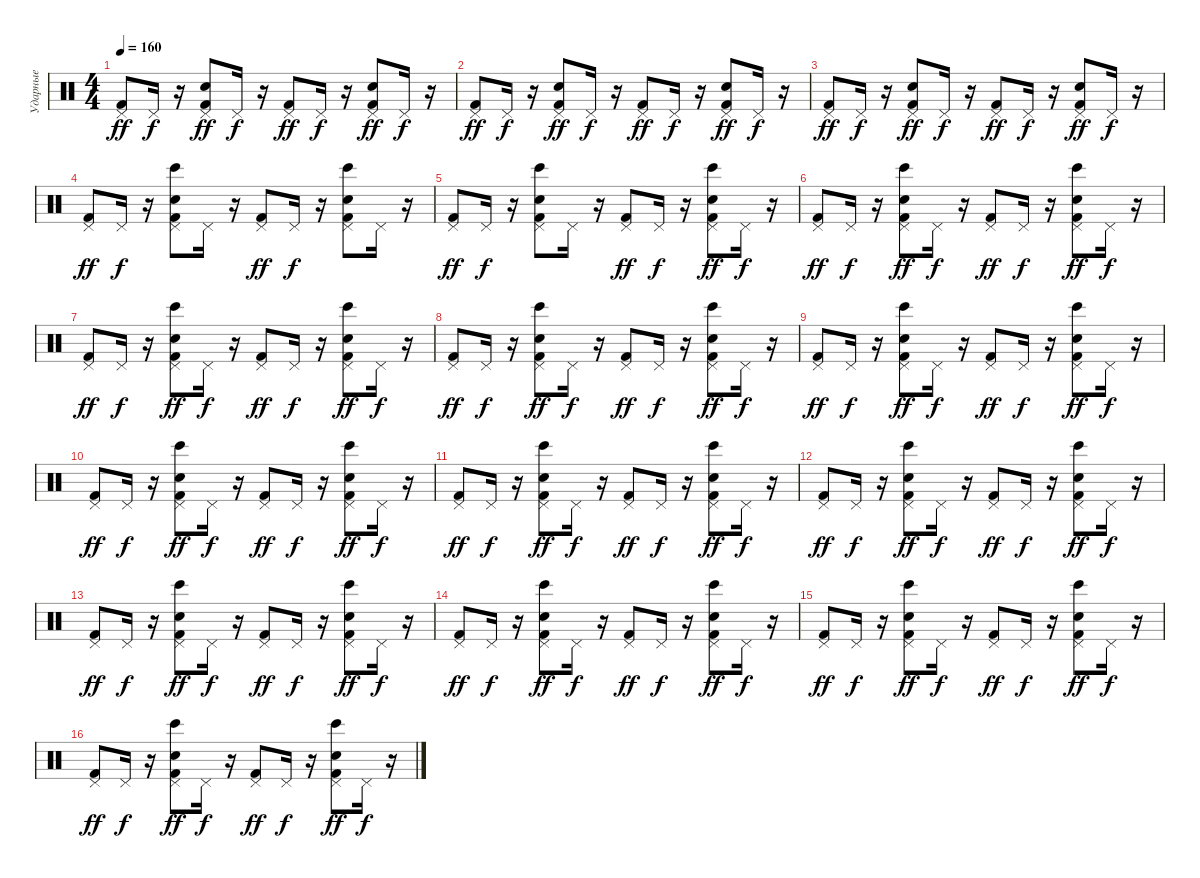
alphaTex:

\track ("Ударные" "Ударные") {instrument percussion}
\staff {score}
\articulation defaults
\ts (4 4)
\tempo 160
\clef neutral
\ks c
("Kick (hit) 2" "Pedal Hi-Hat (hit)").8{dy ff} "Pedal Hi-Hat (hit)".16{dy f} r.16 ("Snare (hit) 2" "Kick (hit) 2" "Pedal Hi-Hat (hit)").8{dy ff} "Pedal Hi-Hat (hit)".16{dy f} r.16 ("Kick (hit) 2" "Pedal Hi-Hat (hit)").8{dy ff} "Pedal Hi-Hat (hit)".16{dy f} r.16 ("Kick (hit) 2" "Snare (hit) 2" "Pedal Hi-Hat (hit)").8{dy ff} "Pedal Hi-Hat (hit)".16{dy f} r.16 |
("Kick (hit) 2" "Pedal Hi-Hat (hit)").8{dy ff} "Pedal Hi-Hat (hit)".16{dy f} r.16 ("Snare (hit) 2" "Kick (hit) 2" "Pedal Hi-Hat (hit)").8{dy ff} "Pedal Hi-Hat (hit)".16{dy f} r.16 ("Kick (hit) 2" "Pedal Hi-Hat (hit)").8{dy ff} "Pedal Hi-Hat (hit)".16{dy f} r.16 ("Kick (hit) 2" "Snare (hit) 2" "Pedal Hi-Hat (hit)").8{dy ff} "Pedal Hi-Hat (hit)".16{dy f} r.16 |
("Kick (hit) 2" "Pedal Hi-Hat (hit)").8{dy ff} "Pedal Hi-Hat (hit)".16{dy f} r.16 ("Kick (hit) 2" "Snare (hit) 2" "Pedal Hi-Hat (hit)").8{dy ff} "Pedal Hi-Hat (hit)".16{dy f} r.16 ("Kick (hit) 2" "Pedal Hi-Hat (hit)").8{dy ff} "Pedal Hi-Hat (hit)".16{dy f} r.16 ("Kick (hit) 2" "Snare (hit) 2" "Pedal Hi-Hat (hit)").8{dy ff} "Pedal Hi-Hat (hit)".16{dy f} r.16 |
("Kick (hit) 2" "Pedal Hi-Hat (hit)").8{dy ff} "Pedal Hi-Hat (hit)".16{dy f} r.16 ("Kick (hit) 2" "Snare (hit) 2" "Pedal Hi-Hat (hit)" "Bongo High (hit)").8 "Pedal Hi-Hat (hit)".16 r.16 ("Kick (hit) 2" "Pedal Hi-Hat (hit)").8{dy ff} "Pedal Hi-Hat (hit)".16{dy f} r.16 ("Kick (hit) 2" "Snare (hit) 2" "Pedal Hi-Hat (hit)" "Bongo High (hit)").8 "Pedal Hi-Hat (hit)".16 r.16 |
("Kick (hit) 2" "Pedal Hi-Hat (hit)").8{dy ff} "Pedal Hi-Hat (hit)".16{dy f} r.16 ("Kick (hit) 2" "Snare (hit) 2" "Pedal Hi-Hat (hit)" "Bongo High (hit)").8 "Pedal Hi-Hat (hit)".16 r.16 ("Kick (hit) 2" "Pedal Hi-Hat (hit)").8{dy ff} "Pedal Hi-Hat (hit)".16{dy f} r.16 ("Kick (hit) 2" "Snare (hit) 2" "Pedal Hi-Hat (hit)" "Bongo High (hit)").8{dy ff} "Pedal Hi-Hat (hit)".16{dy f} r.16 |
("Kick (hit) 2" "Pedal Hi-Hat (hit)").8{dy ff} "Pedal Hi-Hat (hit)".16{dy f} r.16 ("Kick (hit) 2" "Snare (hit) 2" "Pedal Hi-Hat (hit)" "Bongo High (hit)").8{dy ff} "Pedal Hi-Hat (hit)".16{dy f} r.16 ("Kick (hit) 2" "Pedal Hi-Hat (hit)").8{dy ff} "Pedal Hi-Hat (hit)".16{dy f} r.16 ("Snare (hit) 2" "Kick (hit) 2" "Pedal Hi-Hat (hit)" "Bongo High (hit)").8{dy ff} "Pedal Hi-Hat (hit)".16{dy f} r.16 |
("Kick (hit) 2" "Pedal Hi-Hat (hit)").8{dy ff} "Pedal Hi-Hat (hit)".16{dy f} r.16 ("Kick (hit) 2" "Snare (hit) 2" "Pedal Hi-Hat (hit)" "Bongo High (hit)").8{dy ff} "Pedal Hi-Hat (hit)".16{dy f} r.16 ("Kick (hit) 2" "Pedal Hi-Hat (hit)").8{dy ff} "Pedal Hi-Hat (hit)".16{dy f} r.16 ("Kick (hit) 2" "Snare (hit) 2" "Pedal Hi-Hat (hit)" "Bongo High (hit)").8{dy ff} "Pedal Hi-Hat (hit)".16{dy f} r.16 |
("Kick (hit) 2" "Pedal Hi-Hat (hit)").8{dy ff} "Pedal Hi-Hat (hit)".16{dy f} r.16 ("Kick (hit) 2" "Snare (hit) 2" "Pedal Hi-Hat (hit)" "Bongo High (hit)").8{dy ff} "Pedal Hi-Hat (hit)".16{dy f} r.16 ("Kick (hit) 2" "Pedal Hi-Hat (hit)").8{dy ff} "Pedal Hi-Hat (hit)".16{dy f} r.16 ("Snare (hit) 2" "Kick (hit) 2" "Pedal Hi-Hat (hit)" "Bongo High (hit)").8{dy ff} "Pedal Hi-Hat (hit)".16{dy f} r.16 |
("Kick (hit) 2" "Pedal Hi-Hat (hit)").8{dy ff} "Pedal Hi-Hat (hit)".16{dy f} r.16 ("Snare (hit) 2" "Kick (hit) 2" "Pedal Hi-Hat (hit)" "Bongo High (hit)").8{dy ff} "Pedal Hi-Hat (hit)".16{dy f} r.16 ("Kick (hit) 2" "Pedal Hi-Hat (hit)").8{dy ff} "Pedal Hi-Hat (hit)".16{dy f} r.16 ("Kick (hit) 2" "Snare (hit) 2" "Pedal Hi-Hat (hit)" "Bongo High (hit)").8{dy ff} "Pedal Hi-Hat (hit)".16{dy f} r.16 |
("Kick (hit) 2" "Pedal Hi-Hat (hit)").8{dy ff} "Pedal Hi-Hat (hit)".16{dy f} r.16 ("Snare (hit) 2" "Kick (hit) 2" "Pedal Hi-Hat (hit)" "Bongo High (hit)").8{dy ff} "Pedal Hi-Hat (hit)".16{dy f} r.16 ("Kick (hit) 2" "Pedal Hi-Hat (hit)").8{dy ff} "Pedal Hi-Hat (hit)".16{dy f} r.16 ("Kick (hit) 2" "Snare (hit) 2" "Pedal Hi-Hat (hit)" "Bongo High (hit)").8{dy ff} "Pedal Hi-Hat (hit)".16{dy f} r.16 |
("Kick (hit) 2" "Pedal Hi-Hat (hit)").8{dy ff} "Pedal Hi-Hat (hit)".16{dy f} r.16 ("Kick (hit) 2" "Snare (hit) 2" "Pedal Hi-Hat (hit)" "Bongo High (hit)").8{dy ff} "Pedal Hi-Hat (hit)".16{dy f} r.16 ("Kick (hit) 2" "Pedal Hi-Hat (hit)").8{dy ff} "Pedal Hi-Hat (hit)".16{dy f} r.16 ("Kick (hit) 2" "Snare (hit) 2" "Pedal Hi-Hat (hit)" "Bongo High (hit)").8{dy ff} "Pedal Hi-Hat (hit)".16{dy f} r.16 |
("Kick (hit) 2" "Pedal Hi-Hat (hit)").8{dy ff} "Pedal Hi-Hat (hit)".16{dy f} r.16 ("Snare (hit) 2" "Kick (hit) 2" "Pedal Hi-Hat (hit)" "Bongo High (hit)").8{dy ff} "Pedal Hi-Hat (hit)".16{dy f} r.16 ("Kick (hit) 2" "Pedal Hi-Hat (hit)").8{dy ff} "Pedal Hi-Hat (hit)".16{dy f} r.16 ("Kick (hit) 2" "Snare (hit) 2" "Pedal Hi-Hat (hit)" "Bongo High (hit)").8{dy ff} "Pedal Hi-Hat (hit)".16{dy f} r.16 |
("Kick (hit) 2" "Pedal Hi-Hat (hit)").8{dy ff} "Pedal Hi-Hat (hit)".16{dy f} r.16 ("Kick (hit) 2" "Snare (hit) 2" "Pedal Hi-Hat (hit)" "Bongo High (hit)").8{dy ff} "Pedal Hi-Hat (hit)".16{dy f} r.16 ("Kick (hit) 2" "Pedal Hi-Hat (hit)").8{dy ff} "Pedal Hi-Hat (hit)".16{dy f} r.16 ("Kick (hit) 2" "Snare (hit) 2" "Pedal Hi-Hat (hit)" "Bongo High (hit)").8{dy ff} "Pedal Hi-Hat (hit)".16{dy f} r.16 |
("Kick (hit) 2" "Pedal Hi-Hat (hit)").8{dy ff} "Pedal Hi-Hat (hit)".16{dy f} r.16 ("Kick (hit) 2" "Snare (hit) 2" "Pedal Hi-Hat (hit)" "Bongo High (hit)").8{dy ff} "Pedal Hi-Hat (hit)".16{dy f} r.16 ("Kick (hit) 2" "Pedal Hi-Hat (hit)").8{dy ff} "Pedal Hi-Hat (hit)".16{dy f} r.16 ("Snare (hit) 2" "Kick (hit) 2" "Pedal Hi-Hat (hit)" "Bongo High (hit)").8{dy ff} "Pedal Hi-Hat (hit)".16{dy f} r.16 |
("Kick (hit) 2" "Pedal Hi-Hat (hit)").8{dy ff} "Pedal Hi-Hat (hit)".16{dy f} r.16 ("Kick (hit) 2" "Snare (hit) 2" "Pedal Hi-Hat (hit)" "Bongo High (hit)").8{dy ff} "Pedal Hi-Hat (hit)".16{dy f} r.16 ("Kick (hit) 2" "Pedal Hi-Hat (hit)").8{dy ff} "Pedal Hi-Hat (hit)".16{dy f} r.16 ("Kick (hit) 2" "Snare (hit) 2" "Pedal Hi-Hat (hit)" "Bongo High (hit)").8{dy ff} "Pedal Hi-Hat (hit)".16{dy f} r.16 |
("Kick (hit) 2" "Pedal Hi-Hat (hit)").8{dy ff} "Pedal Hi-Hat (hit)".16{dy f} r.16 ("Kick (hit) 2" "Snare (hit) 2" "Pedal Hi-Hat (hit)" "Bongo High (hit)").8{dy ff} "Pedal Hi-Hat (hit)".16{dy f} r.16 ("Kick (hit) 2" "Pedal Hi-Hat (hit)").8{dy ff} "Pedal Hi-Hat (hit)".16{dy f} r.16 ("Snare (hit) 2" "Kick (hit) 2" "Pedal Hi-Hat (hit)" "Bongo High (hit)").8{dy ff} "Pedal Hi-Hat (hit)".16{dy f} r.16
